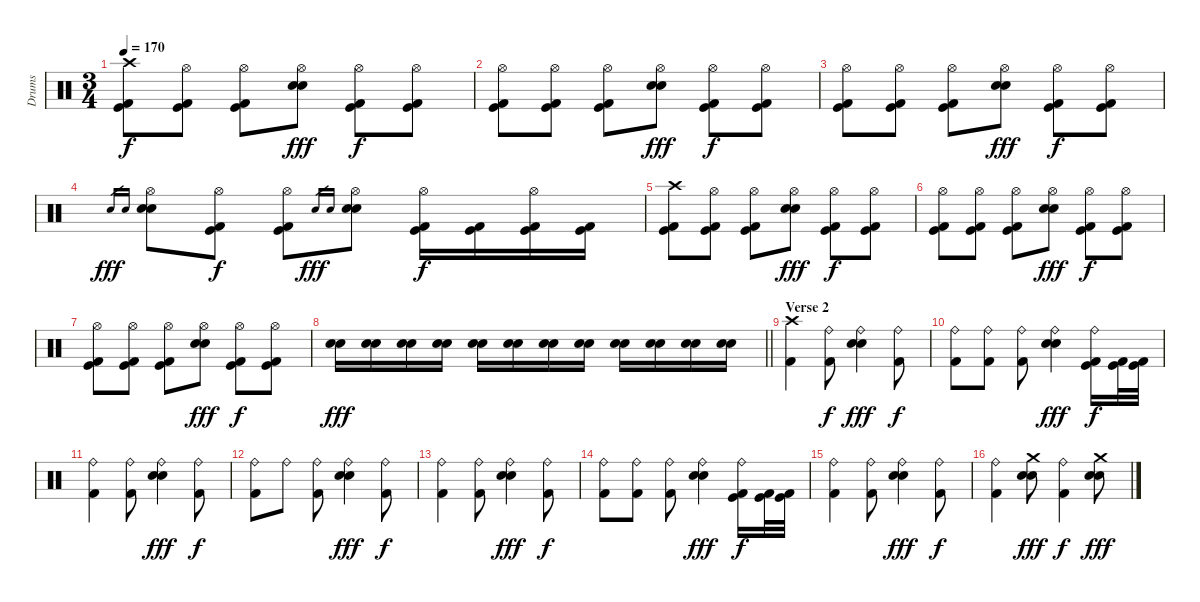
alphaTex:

\track ("Drums" "Drums") {instrument percussion}
\staff {score}
\articulation defaults
\ts (3 4)
\tempo 170
\clef neutral
\ks c
("Crash high (hit)" "Kick (hit)" "Kick (hit) 2").8{dy f} ("Hi-Hat (open)" "Kick (hit)" "Kick (hit) 2").8 ("Hi-Hat (open)" "Kick (hit)" "Kick (hit) 2").8 ("Hi-Hat (open)" "Electric Snare (hit)" "Electric Snare (hit)").8{dy fff} ("Hi-Hat (open)" "Kick (hit)" "Kick (hit) 2").8{dy f} ("Hi-Hat (open)" "Kick (hit)" "Kick (hit) 2").8 |
("Hi-Hat (open)" "Kick (hit)" "Kick (hit) 2").8 ("Hi-Hat (open)" "Kick (hit)" "Kick (hit) 2").8 ("Hi-Hat (open)" "Kick (hit)" "Kick (hit) 2").8 ("Hi-Hat (open)" "Electric Snare (hit)" "Electric Snare (hit)").8{dy fff} ("Hi-Hat (open)" "Kick (hit)" "Kick (hit) 2").8{dy f} ("Hi-Hat (open)" "Kick (hit)" "Kick (hit) 2").8 |
("Hi-Hat (open)" "Kick (hit)" "Kick (hit) 2").8 ("Hi-Hat (open)" "Kick (hit)" "Kick (hit) 2").8 ("Hi-Hat (open)" "Kick (hit)" "Kick (hit) 2").8 ("Hi-Hat (open)" "Electric Snare (hit)" "Electric Snare (hit)").8{dy fff} ("Hi-Hat (open)" "Kick (hit)" "Kick (hit) 2").8{dy f} ("Hi-Hat (open)" "Kick (hit)" "Kick (hit) 2").8 |
"Electric Snare (hit)".16{gr dy fff} "Electric Snare (hit)".16{gr} ("Hi-Hat (open)" "Electric Snare (hit)" "Electric Snare (hit)").8 ("Hi-Hat (open)" "Kick (hit)" "Kick (hit) 2").8{dy f} ("Hi-Hat (open)" "Kick (hit)" "Kick (hit) 2").8 "Electric Snare (hit)".16{gr dy fff} "Electric Snare (hit)".16{gr} ("Hi-Hat (open)" "Electric Snare (hit)" "Electric Snare (hit)").8 ("Hi-Hat (open)" "Kick (hit)" "Kick (hit) 2").16{dy f} ("Kick (hit)" "Kick (hit) 2").16 ("Hi-Hat (open)" "Kick (hit)" "Kick (hit) 2").16 ("Kick (hit)" "Kick (hit) 2").16 |
("Crash high (hit)" "Kick (hit)" "Kick (hit) 2").8 ("Hi-Hat (open)" "Kick (hit)" "Kick (hit) 2").8 ("Hi-Hat (open)" "Kick (hit)" "Kick (hit) 2").8 ("Hi-Hat (open)" "Electric Snare (hit)" "Electric Snare (hit)").8{dy fff} ("Hi-Hat (open)" "Kick (hit)" "Kick (hit) 2").8{dy f} ("Hi-Hat (open)" "Kick (hit)" "Kick (hit) 2").8 |
("Hi-Hat (open)" "Kick (hit)" "Kick (hit) 2").8 ("Hi-Hat (open)" "Kick (hit)" "Kick (hit) 2").8 ("Hi-Hat (open)" "Kick (hit)" "Kick (hit) 2").8 ("Hi-Hat (open)" "Electric Snare (hit)" "Electric Snare (hit)").8{dy fff} ("Hi-Hat (open)" "Kick (hit)" "Kick (hit) 2").8{dy f} ("Hi-Hat (open)" "Kick (hit)" "Kick (hit) 2").8 |
("Hi-Hat (open)" "Kick (hit)" "Kick (hit) 2").8 ("Hi-Hat (open)" "Kick (hit)" "Kick (hit) 2").8 ("Hi-Hat (open)" "Kick (hit)" "Kick (hit) 2").8 ("Hi-Hat (open)" "Electric Snare (hit)" "Electric Snare (hit)").8{dy fff} ("Hi-Hat (open)" "Kick (hit)" "Kick (hit) 2").8{dy f} ("Hi-Hat (open)" "Kick (hit)" "Kick (hit) 2").8 |
\barLineRight lightlight
("Electric Snare (hit)" "Electric Snare (hit)").16{dy fff} ("Electric Snare (hit)" "Electric Snare (hit)").16 ("Electric Snare (hit)" "Electric Snare (hit)").16 ("Electric Snare (hit)" "Electric Snare (hit)").16 ("Electric Snare (hit)" "Electric Snare (hit)").16 ("Electric Snare (hit)" "Electric Snare (hit)").16 ("Electric Snare (hit)" "Electric Snare (hit)").16 ("Electric Snare (hit)" "Electric Snare (hit)").16 ("Electric Snare (hit)" "Electric Snare (hit)").16 ("Electric Snare (hit)" "Electric Snare (hit)").16 ("Electric Snare (hit)" "Electric Snare (hit)").16 ("Electric Snare (hit)" "Electric Snare (hit)").16 |
\section ("" "Verse 2")
("Crash high (hit)" "Kick (hit) 2").4 ("Ride (bell)" "Kick (hit) 2").8{dy f} ("Ride (bell)" "Electric Snare (hit)" "Electric Snare (hit)").4{dy fff} ("Ride (bell)" "Kick (hit) 2").8{dy f} |
("Ride (bell)" "Kick (hit) 2").8 ("Ride (bell)" "Kick (hit) 2").8 ("Ride (bell)" "Kick (hit) 2").8 ("Ride (bell)" "Electric Snare (hit)" "Electric Snare (hit)").4{dy fff} ("Ride (bell)" "Kick (hit)" "Kick (hit) 2").16{dy f} ("Kick (hit)" "Kick (hit) 2").32 ("Kick (hit)" "Kick (hit) 2").32 |
("Ride (bell)" "Kick (hit) 2").4 ("Ride (bell)" "Kick (hit) 2").8 ("Ride (bell)" "Electric Snare (hit)" "Electric Snare (hit)").4{dy fff} ("Ride (bell)" "Kick (hit) 2").8{dy f} |
("Ride (bell)" "Kick (hit) 2").8 "Ride (bell)".8 ("Ride (bell)" "Kick (hit) 2").8 ("Ride (bell)" "Electric Snare (hit)" "Electric Snare (hit)").4{dy fff} ("Ride (bell)" "Kick (hit) 2").8{dy f} |
("Ride (bell)" "Kick (hit) 2").4 ("Ride (bell)" "Kick (hit) 2").8 ("Ride (bell)" "Electric Snare (hit)" "Electric Snare (hit)").4{dy fff} ("Ride (bell)" "Kick (hit) 2").8{dy f} |
("Ride (bell)" "Kick (hit) 2").8 ("Ride (bell)" "Kick (hit) 2").8 ("Ride (bell)" "Kick (hit) 2").8 ("Ride (bell)" "Electric Snare (hit)" "Electric Snare (hit)").4{dy fff} ("Ride (bell)" "Kick (hit)" "Kick (hit) 2").16{dy f} ("Kick (hit)" "Kick (hit) 2").32 ("Kick (hit)" "Kick (hit) 2").32 |
("Ride (bell)" "Kick (hit) 2").4 ("Ride (bell)" "Kick (hit) 2").8 ("Ride (bell)" "Electric Snare (hit)" "Electric Snare (hit)").4{dy fff} ("Ride (bell)" "Kick (hit) 2").8{dy f} |
("Ride (bell)" "Kick (hit) 2").4 ("Crash medium (hit)" "Electric Snare (hit)" "Electric Snare (hit)").8{dy fff} ("Ride (bell)" "Kick (hit) 2").4{dy f} ("Crash medium (hit)" "Electric Snare (hit)" "Electric Snare (hit)").8{dy fff}
